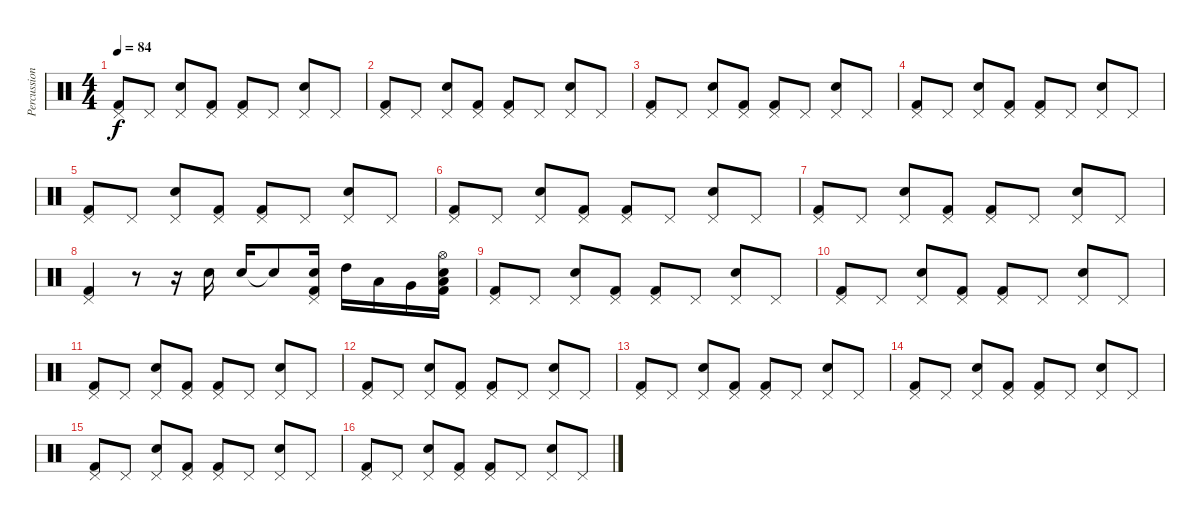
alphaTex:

\track ("Percussion" "Percussion") {instrument percussion}
\staff {score}
\articulation defaults
\ts (4 4)
\tempo 84
\clef neutral
\ks c
("Pedal Hi-Hat (hit)" "Kick (hit) 2").8{dy f} "Pedal Hi-Hat (hit)".8 ("Pedal Hi-Hat (hit)" "Snare (hit) 2").8 ("Pedal Hi-Hat (hit)" "Kick (hit) 2").8 ("Pedal Hi-Hat (hit)" "Kick (hit) 2").8 "Pedal Hi-Hat (hit)".8 ("Pedal Hi-Hat (hit)" "Snare (hit) 2").8 "Pedal Hi-Hat (hit)".8 |
("Pedal Hi-Hat (hit)" "Kick (hit) 2").8 "Pedal Hi-Hat (hit)".8 ("Pedal Hi-Hat (hit)" "Snare (hit) 2").8 ("Pedal Hi-Hat (hit)" "Kick (hit) 2").8 ("Pedal Hi-Hat (hit)" "Kick (hit) 2").8 "Pedal Hi-Hat (hit)".8 ("Pedal Hi-Hat (hit)" "Snare (hit) 2").8 "Pedal Hi-Hat (hit)".8 |
("Pedal Hi-Hat (hit)" "Kick (hit) 2").8 "Pedal Hi-Hat (hit)".8 ("Pedal Hi-Hat (hit)" "Snare (hit) 2").8 ("Pedal Hi-Hat (hit)" "Kick (hit) 2").8 ("Pedal Hi-Hat (hit)" "Kick (hit) 2").8 "Pedal Hi-Hat (hit)".8 ("Pedal Hi-Hat (hit)" "Snare (hit) 2").8 "Pedal Hi-Hat (hit)".8 |
("Pedal Hi-Hat (hit)" "Kick (hit) 2").8 "Pedal Hi-Hat (hit)".8 ("Pedal Hi-Hat (hit)" "Snare (hit) 2").8 ("Pedal Hi-Hat (hit)" "Kick (hit) 2").8 ("Pedal Hi-Hat (hit)" "Kick (hit) 2").8 "Pedal Hi-Hat (hit)".8 ("Pedal Hi-Hat (hit)" "Snare (hit) 2").8 "Pedal Hi-Hat (hit)".8 |
("Pedal Hi-Hat (hit)" "Kick (hit) 2").8 "Pedal Hi-Hat (hit)".8 ("Pedal Hi-Hat (hit)" "Snare (hit) 2").8 ("Pedal Hi-Hat (hit)" "Kick (hit) 2").8 ("Pedal Hi-Hat (hit)" "Kick (hit) 2").8 "Pedal Hi-Hat (hit)".8 ("Pedal Hi-Hat (hit)" "Snare (hit) 2").8 "Pedal Hi-Hat (hit)".8 |
("Pedal Hi-Hat (hit)" "Kick (hit) 2").8 "Pedal Hi-Hat (hit)".8 ("Pedal Hi-Hat (hit)" "Snare (hit) 2").8 ("Pedal Hi-Hat (hit)" "Kick (hit) 2").8 ("Pedal Hi-Hat (hit)" "Kick (hit) 2").8 "Pedal Hi-Hat (hit)".8 ("Pedal Hi-Hat (hit)" "Snare (hit) 2").8 "Pedal Hi-Hat (hit)".8 |
("Pedal Hi-Hat (hit)" "Kick (hit) 2").8 "Pedal Hi-Hat (hit)".8 ("Pedal Hi-Hat (hit)" "Snare (hit) 2").8 ("Pedal Hi-Hat (hit)" "Kick (hit) 2").8 ("Pedal Hi-Hat (hit)" "Kick (hit) 2").8 "Pedal Hi-Hat (hit)".8 ("Pedal Hi-Hat (hit)" "Snare (hit) 2").8 "Pedal Hi-Hat (hit)".8 |
("Pedal Hi-Hat (hit)" "Kick (hit) 2").4 r.8 r.16 "Snare (hit) 2".16 "Snare (hit) 2".16 "Snare (hit)"{t}.8 ("Pedal Hi-Hat (hit)" "Snare (hit) 2" "Kick (hit) 2").16 "High Tom (hit)".16 "Low Tom (hit)".16 "Very Low Tom (hit)".16 ("Hi-Hat (open)" "Snare (hit) 2" "Low Tom (hit)" "Kick (hit) 2").16 |
("Pedal Hi-Hat (hit)" "Kick (hit) 2").8 "Pedal Hi-Hat (hit)".8 ("Pedal Hi-Hat (hit)" "Snare (hit) 2").8 ("Pedal Hi-Hat (hit)" "Kick (hit) 2").8 ("Pedal Hi-Hat (hit)" "Kick (hit) 2").8 "Pedal Hi-Hat (hit)".8 ("Pedal Hi-Hat (hit)" "Snare (hit) 2").8 "Pedal Hi-Hat (hit)".8 |
("Pedal Hi-Hat (hit)" "Kick (hit) 2").8 "Pedal Hi-Hat (hit)".8 ("Pedal Hi-Hat (hit)" "Snare (hit) 2").8 ("Pedal Hi-Hat (hit)" "Kick (hit) 2").8 ("Pedal Hi-Hat (hit)" "Kick (hit) 2").8 "Pedal Hi-Hat (hit)".8 ("Pedal Hi-Hat (hit)" "Snare (hit) 2").8 "Pedal Hi-Hat (hit)".8 |
("Pedal Hi-Hat (hit)" "Kick (hit) 2").8 "Pedal Hi-Hat (hit)".8 ("Pedal Hi-Hat (hit)" "Snare (hit) 2").8 ("Pedal Hi-Hat (hit)" "Kick (hit) 2").8 ("Pedal Hi-Hat (hit)" "Kick (hit) 2").8 "Pedal Hi-Hat (hit)".8 ("Pedal Hi-Hat (hit)" "Snare (hit) 2").8 "Pedal Hi-Hat (hit)".8 |
("Pedal Hi-Hat (hit)" "Kick (hit) 2").8 "Pedal Hi-Hat (hit)".8 ("Pedal Hi-Hat (hit)" "Snare (hit) 2").8 ("Pedal Hi-Hat (hit)" "Kick (hit) 2").8 ("Pedal Hi-Hat (hit)" "Kick (hit) 2").8 "Pedal Hi-Hat (hit)".8 ("Pedal Hi-Hat (hit)" "Snare (hit) 2").8 "Pedal Hi-Hat (hit)".8 |
("Pedal Hi-Hat (hit)" "Kick (hit) 2").8 "Pedal Hi-Hat (hit)".8 ("Pedal Hi-Hat (hit)" "Snare (hit) 2").8 ("Pedal Hi-Hat (hit)" "Kick (hit) 2").8 ("Pedal Hi-Hat (hit)" "Kick (hit) 2").8 "Pedal Hi-Hat (hit)".8 ("Pedal Hi-Hat (hit)" "Snare (hit) 2").8 "Pedal Hi-Hat (hit)".8 |
("Pedal Hi-Hat (hit)" "Kick (hit) 2").8 "Pedal Hi-Hat (hit)".8 ("Pedal Hi-Hat (hit)" "Snare (hit) 2").8 ("Pedal Hi-Hat (hit)" "Kick (hit) 2").8 ("Pedal Hi-Hat (hit)" "Kick (hit) 2").8 "Pedal Hi-Hat (hit)".8 ("Pedal Hi-Hat (hit)" "Snare (hit) 2").8 "Pedal Hi-Hat (hit)".8 |
("Pedal Hi-Hat (hit)" "Kick (hit) 2").8 "Pedal Hi-Hat (hit)".8 ("Pedal Hi-Hat (hit)" "Snare (hit) 2").8 ("Pedal Hi-Hat (hit)" "Kick (hit) 2").8 ("Pedal Hi-Hat (hit)" "Kick (hit) 2").8 "Pedal Hi-Hat (hit)".8 ("Pedal Hi-Hat (hit)" "Snare (hit) 2").8 "Pedal Hi-Hat (hit)".8 |
("Pedal Hi-Hat (hit)" "Kick (hit) 2").8 "Pedal Hi-Hat (hit)".8 ("Pedal Hi-Hat (hit)" "Snare (hit) 2").8 ("Pedal Hi-Hat (hit)" "Kick (hit) 2").8 ("Pedal Hi-Hat (hit)" "Kick (hit) 2").8 "Pedal Hi-Hat (hit)".8 ("Pedal Hi-Hat (hit)" "Snare (hit) 2").8 "Pedal Hi-Hat (hit)".8
